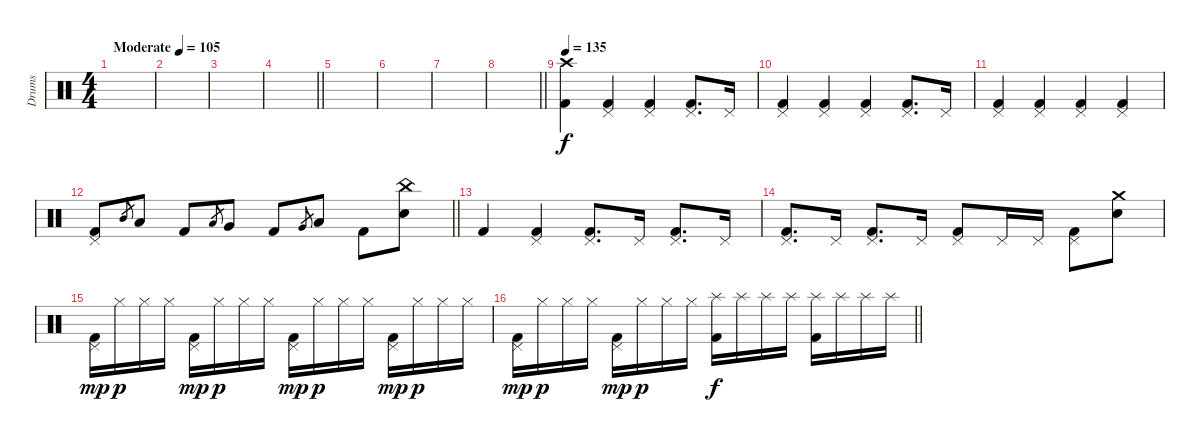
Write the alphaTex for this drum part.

\track ("Drums" "Drums") {instrument percussion}
\staff {score}
\articulation defaults
\ts (4 4)
\tempo (105 "Moderate")
\clef neutral
\ks c
|
|
|
\barLineRight lightlight
|
|
|
|
\barLineRight lightlight
|
\tempo 135
("Crash high (hit)" "Kick (hit) 2").4 ("Pedal Hi-Hat (hit)" "Kick (hit) 2").4 ("Pedal Hi-Hat (hit)" "Kick (hit) 2").4 ("Pedal Hi-Hat (hit)" "Kick (hit) 2").8{d} "Pedal Hi-Hat (hit)".16 |
("Pedal Hi-Hat (hit)" "Kick (hit) 2").4 ("Pedal Hi-Hat (hit)" "Kick (hit) 2").4 ("Pedal Hi-Hat (hit)" "Kick (hit) 2").4 ("Pedal Hi-Hat (hit)" "Kick (hit) 2").8{d} "Pedal Hi-Hat (hit)".16 |
("Pedal Hi-Hat (hit)" "Kick (hit) 2").4 ("Pedal Hi-Hat (hit)" "Kick (hit) 2").4 ("Pedal Hi-Hat (hit)" "Kick (hit) 2").4 ("Pedal Hi-Hat (hit)" "Kick (hit) 2").4 |
\barLineRight lightlight
("Pedal Hi-Hat (hit)" "Kick (hit) 2").8 "Mid Tom (hit)".8{gr} "Low Tom (hit)".8 "Kick (hit) 2".8 "Low Tom (hit)".8{gr} "Very Low Tom (hit)".8 "Kick (hit) 2".8 "Very Low Tom (hit)".8{gr} "Low Floor Tom (hit)".8 "Kick (hit) 2".8 ("China (hit)" "Electric Snare (hit)").8 |
"Kick (hit) 2".4 ("Pedal Hi-Hat (hit)" "Kick (hit) 2").4 ("Pedal Hi-Hat (hit)" "Kick (hit) 2").8{d} "Pedal Hi-Hat (hit)".16 ("Pedal Hi-Hat (hit)" "Kick (hit) 2").8{d} "Pedal Hi-Hat (hit)".16 |
("Pedal Hi-Hat (hit)" "Kick (hit) 2").8{d} "Pedal Hi-Hat (hit)".16 ("Pedal Hi-Hat (hit)" "Kick (hit) 2").8{d} "Pedal Hi-Hat (hit)".16 ("Pedal Hi-Hat (hit)" "Kick (hit) 2").8 "Pedal Hi-Hat (hit)".16 "Pedal Hi-Hat (hit)".16 ("Pedal Hi-Hat (hit)" "Kick (hit) 2").8 ("Crash medium (hit)" "Electric Snare (hit)").8 |
("Pedal Hi-Hat (hit)" "Kick (hit) 2").16{dy mp} "Hi-Hat (closed)".16{dy p} "Hi-Hat (closed)".16 "Hi-Hat (closed)".16 ("Pedal Hi-Hat (hit)" "Kick (hit) 2").16{dy mp} "Hi-Hat (closed)".16{dy p} "Hi-Hat (closed)".16 "Hi-Hat (closed)".16 ("Pedal Hi-Hat (hit)" "Kick (hit) 2").16{dy mp} "Hi-Hat (closed)".16{dy p} "Hi-Hat (closed)".16 "Hi-Hat (closed)".16 ("Pedal Hi-Hat (hit)" "Kick (hit) 2").16{dy mp} "Hi-Hat (closed)".16{dy p} "Hi-Hat (closed)".16 "Hi-Hat (closed)".16 |
\barLineRight lightlight
("Pedal Hi-Hat (hit)" "Kick (hit) 2").16{dy mp} "Hi-Hat (closed)".16{dy p} "Hi-Hat (closed)".16 "Hi-Hat (closed)".16 ("Pedal Hi-Hat (hit)" "Kick (hit) 2").16{dy mp} "Hi-Hat (closed)".16{dy p} "Hi-Hat (closed)".16 "Hi-Hat (closed)".16 ("Splash (hit)" "Kick (hit) 2").16{dy f} "Splash (hit)".16 "Splash (hit)".16 "Splash (hit)".16 ("Splash (hit)" "Kick (hit) 2").16 "Splash (hit)".16 "Splash (hit)".16 "Splash (hit)".16
